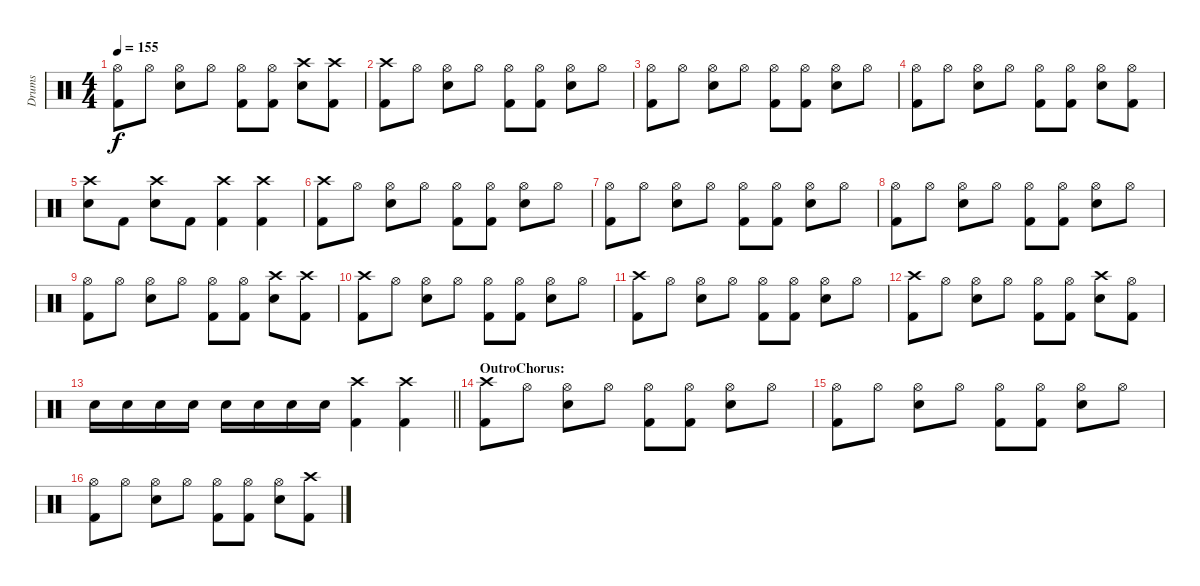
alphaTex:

\track ("Drums" "Drums") {instrument percussion}
\staff {score}
\articulation defaults
\ts (4 4)
\tempo 155
\clef neutral
\ks c
("Hi-Hat (open)" "Kick (hit) 2").8{dy f} "Hi-Hat (open)".8 ("Hi-Hat (open)" "Electric Snare (hit)").8 "Hi-Hat (open)".8 ("Hi-Hat (open)" "Kick (hit) 2").8 ("Hi-Hat (open)" "Kick (hit) 2").8 ("Crash high (hit)" "Electric Snare (hit)").8 ("Crash high (hit)" "Kick (hit) 2").8 |
("Crash high (hit)" "Kick (hit) 2").8 "Hi-Hat (open)".8 ("Hi-Hat (open)" "Electric Snare (hit)").8 "Hi-Hat (open)".8 ("Hi-Hat (open)" "Kick (hit) 2").8 ("Hi-Hat (open)" "Kick (hit) 2").8 ("Hi-Hat (open)" "Electric Snare (hit)").8 "Hi-Hat (open)".8 |
("Hi-Hat (open)" "Kick (hit) 2").8 "Hi-Hat (open)".8 ("Hi-Hat (open)" "Electric Snare (hit)").8 "Hi-Hat (open)".8 ("Hi-Hat (open)" "Kick (hit) 2").8 ("Hi-Hat (open)" "Kick (hit) 2").8 ("Hi-Hat (open)" "Electric Snare (hit)").8 "Hi-Hat (open)".8 |
("Hi-Hat (open)" "Kick (hit) 2").8 "Hi-Hat (open)".8 ("Hi-Hat (open)" "Electric Snare (hit)").8 "Hi-Hat (open)".8 ("Hi-Hat (open)" "Kick (hit) 2").8 ("Hi-Hat (open)" "Kick (hit) 2").8 ("Hi-Hat (open)" "Electric Snare (hit)").8 ("Hi-Hat (open)" "Kick (hit) 2").8 |
("Crash high (hit)" "Electric Snare (hit)").8 "Kick (hit) 2".8 ("Crash high (hit)" "Electric Snare (hit)").8 "Kick (hit) 2".8 ("Crash high (hit)" "Kick (hit) 2").4 ("Crash high (hit)" "Kick (hit) 2").4 |
("Crash high (hit)" "Kick (hit) 2").8 "Hi-Hat (open)".8 ("Hi-Hat (open)" "Electric Snare (hit)").8 "Hi-Hat (open)".8 ("Hi-Hat (open)" "Kick (hit) 2").8 ("Hi-Hat (open)" "Kick (hit) 2").8 ("Hi-Hat (open)" "Electric Snare (hit)").8 "Hi-Hat (open)".8 |
("Hi-Hat (open)" "Kick (hit) 2").8 "Hi-Hat (open)".8 ("Hi-Hat (open)" "Electric Snare (hit)").8 "Hi-Hat (open)".8 ("Hi-Hat (open)" "Kick (hit) 2").8 ("Hi-Hat (open)" "Kick (hit) 2").8 ("Hi-Hat (open)" "Electric Snare (hit)").8 "Hi-Hat (open)".8 |
("Hi-Hat (open)" "Kick (hit) 2").8 "Hi-Hat (open)".8 ("Hi-Hat (open)" "Electric Snare (hit)").8 "Hi-Hat (open)".8 ("Hi-Hat (open)" "Kick (hit) 2").8 ("Hi-Hat (open)" "Kick (hit) 2").8 ("Hi-Hat (open)" "Electric Snare (hit)").8 "Hi-Hat (open)".8 |
("Hi-Hat (open)" "Kick (hit) 2").8 "Hi-Hat (open)".8 ("Hi-Hat (open)" "Electric Snare (hit)").8 "Hi-Hat (open)".8 ("Hi-Hat (open)" "Kick (hit) 2").8 ("Hi-Hat (open)" "Kick (hit) 2").8 ("Crash high (hit)" "Electric Snare (hit)").8 ("Crash high (hit)" "Kick (hit) 2").8 |
("Crash high (hit)" "Kick (hit) 2").8 "Hi-Hat (open)".8 ("Hi-Hat (open)" "Electric Snare (hit)").8 "Hi-Hat (open)".8 ("Hi-Hat (open)" "Kick (hit) 2").8 ("Hi-Hat (open)" "Kick (hit) 2").8 ("Hi-Hat (open)" "Electric Snare (hit)").8 "Hi-Hat (open)".8 |
("Crash high (hit)" "Kick (hit) 2").8 "Hi-Hat (open)".8 ("Hi-Hat (open)" "Electric Snare (hit)").8 "Hi-Hat (open)".8 ("Hi-Hat (open)" "Kick (hit) 2").8 ("Hi-Hat (open)" "Kick (hit) 2").8 ("Hi-Hat (open)" "Electric Snare (hit)").8 "Hi-Hat (open)".8 |
("Crash high (hit)" "Kick (hit) 2").8 "Hi-Hat (open)".8 ("Hi-Hat (open)" "Electric Snare (hit)").8 "Hi-Hat (open)".8 ("Hi-Hat (open)" "Kick (hit) 2").8 ("Hi-Hat (open)" "Kick (hit) 2").8 ("Crash high (hit)" "Electric Snare (hit)").8 ("Hi-Hat (open)" "Kick (hit) 2").8 |
\barLineRight lightlight "Electric Snare (hit)".16 "Electric Snare (hit)".16 "Electric Snare (hit)".16 "Electric Snare (hit)".16 "Electric Snare (hit)".16 "Electric Snare (hit)".16 "Electric Snare (hit)".16 "Electric Snare (hit)".16
("Crash high (hit)" "Kick (hit) 2").4 ("Crash high (hit)" "Kick (hit) 2").4 |
\section ("" "OutroChorus:")
("Crash high (hit)" "Kick (hit) 2").8 "Hi-Hat (open)".8 ("Hi-Hat (open)" "Electric Snare (hit)").8 "Hi-Hat (open)".8 ("Hi-Hat (open)" "Kick (hit) 2").8 ("Hi-Hat (open)" "Kick (hit) 2").8 ("Hi-Hat (open)" "Electric Snare (hit)").8 "Hi-Hat (open)".8 |
("Hi-Hat (open)" "Kick (hit) 2").8 "Hi-Hat (open)".8 ("Hi-Hat (open)" "Electric Snare (hit)").8 "Hi-Hat (open)".8 ("Hi-Hat (open)" "Kick (hit) 2").8 ("Hi-Hat (open)" "Kick (hit) 2").8 ("Hi-Hat (open)" "Electric Snare (hit)").8 "Hi-Hat (open)".8 |
("Hi-Hat (open)" "Kick (hit) 2").8 "Hi-Hat (open)".8 ("Hi-Hat (open)" "Electric Snare (hit)").8 "Hi-Hat (open)".8 ("Hi-Hat (open)" "Kick (hit) 2").8 ("Hi-Hat (open)" "Kick (hit) 2").8 ("Hi-Hat (open)" "Electric Snare (hit)").8 ("Crash high (hit)" "Kick (hit) 2").8
